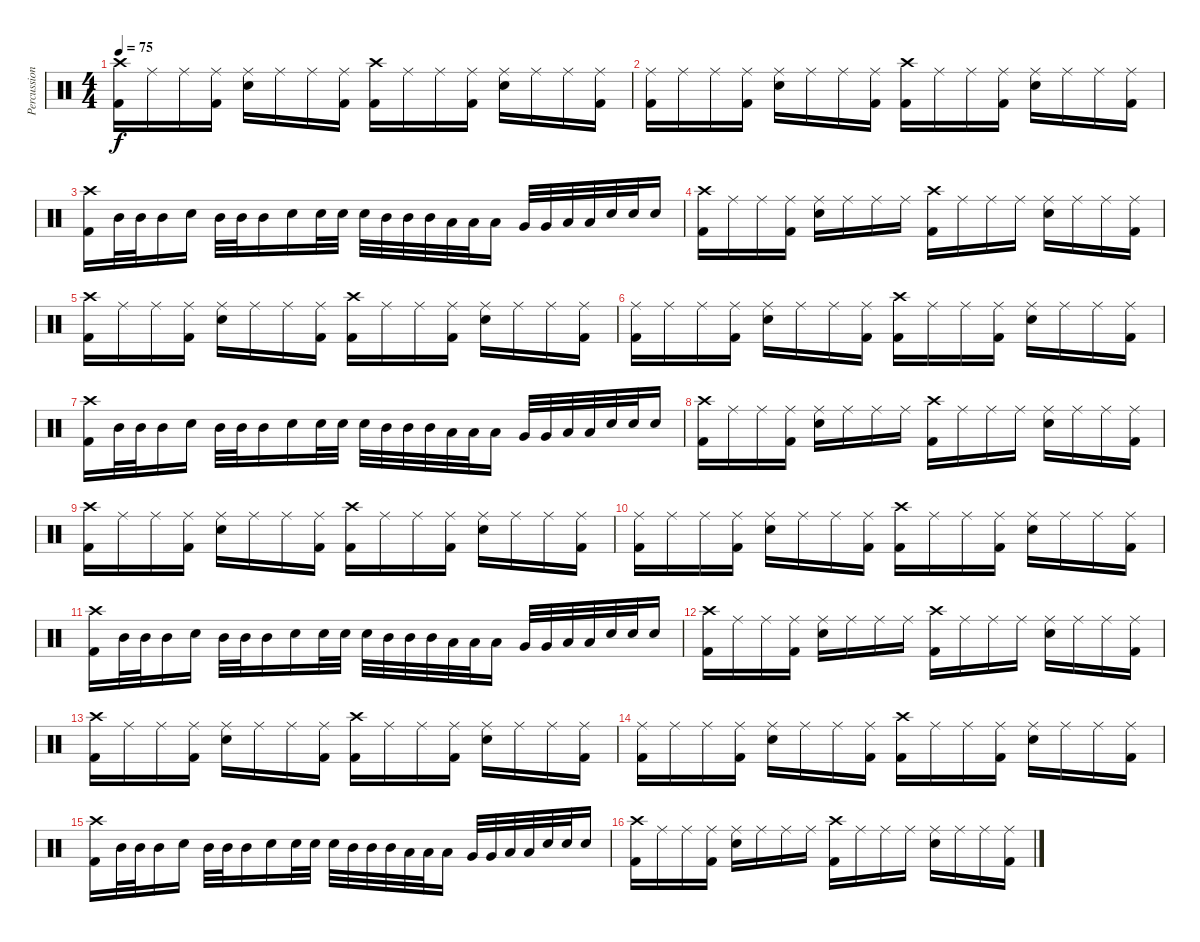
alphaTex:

\track ("Percussions" "Percussion") {instrument percussion}
\staff {score}
\articulation defaults
\ts (4 4)
\tempo 75
\clef neutral
\ks c
("Crash high (hit)" "Kick (hit) 2").16{dy f} "Ride (middle)".16 "Ride (middle)".16 ("Ride (middle)" "Kick (hit) 2").16 ("Ride (middle)" "Electric Snare (hit)").16 "Ride (middle)".16 "Ride (middle)".16 ("Ride (middle)" "Kick (hit) 2").16 ("Crash high (hit)" "Kick (hit) 2").16 "Ride (middle)".16 "Ride (middle)".16 ("Ride (middle)" "Kick (hit) 2").16 ("Ride (middle)" "Electric Snare (hit)").16 "Ride (middle)".16 "Ride (middle)".16 ("Ride (middle)" "Kick (hit) 2").16 |
("Ride (middle)" "Kick (hit) 2").16 "Ride (middle)".16 "Ride (middle)".16 ("Ride (middle)" "Kick (hit) 2").16 ("Ride (middle)" "Electric Snare (hit)").16 "Ride (middle)".16 "Ride (middle)".16 ("Ride (middle)" "Kick (hit) 2").16 ("Crash high (hit)" "Kick (hit) 2").16 "Ride (middle)".16 "Ride (middle)".16 ("Ride (middle)" "Kick (hit) 2").16 ("Ride (middle)" "Electric Snare (hit)").16 "Ride (middle)".16 "Ride (middle)".16 ("Ride (middle)" "Kick (hit) 2").16 |
("Crash high (hit)" "Kick (hit) 2").16 "Mid Tom (hit)".32 "Mid Tom (hit)".32 "Mid Tom (hit)".16 "Electric Snare (hit)".16 "Mid Tom (hit)".32 "Mid Tom (hit)".32 "Mid Tom (hit)".16 "Electric Snare (hit)".16 "Electric Snare (hit)".32 "Electric Snare (hit)".32 "Electric Snare (hit)".32 "Mid Tom (hit)".32 "Mid Tom (hit)".32 "Mid Tom (hit)".32 "Low Tom (hit)".32 "Low Tom (hit)".32 "Low Tom (hit)".16 "Very Low Tom (hit)".32 "Very Low Tom (hit)".32 "Low Floor Tom (hit)".32 "Low Floor Tom (hit)".32 "Electric Snare (hit)".32 "Electric Snare (hit)".32 "Electric Snare (hit)".16 |
("Crash high (hit)" "Kick (hit) 2").16 "Ride (middle)".16 "Ride (middle)".16 ("Ride (middle)" "Kick (hit) 2").16 ("Ride (middle)" "Electric Snare (hit)").16 "Ride (middle)".16 "Ride (middle)".16 "Ride (middle)".16 ("Crash high (hit)" "Kick (hit) 2").16 "Ride (middle)".16 "Ride (middle)".16 "Ride (middle)".16 ("Ride (middle)" "Electric Snare (hit)").16 "Ride (middle)".16 "Ride (middle)".16 ("Ride (middle)" "Kick (hit) 2").16 |
("Crash high (hit)" "Kick (hit) 2").16 "Ride (middle)".16 "Ride (middle)".16 ("Ride (middle)" "Kick (hit) 2").16 ("Ride (middle)" "Electric Snare (hit)").16 "Ride (middle)".16 "Ride (middle)".16 ("Ride (middle)" "Kick (hit) 2").16 ("Crash high (hit)" "Kick (hit) 2").16 "Ride (middle)".16 "Ride (middle)".16 ("Ride (middle)" "Kick (hit) 2").16 ("Ride (middle)" "Electric Snare (hit)").16 "Ride (middle)".16 "Ride (middle)".16 ("Ride (middle)" "Kick (hit) 2").16 |
("Ride (middle)" "Kick (hit) 2").16 "Ride (middle)".16 "Ride (middle)".16 ("Ride (middle)" "Kick (hit) 2").16 ("Ride (middle)" "Electric Snare (hit)").16 "Ride (middle)".16 "Ride (middle)".16 ("Ride (middle)" "Kick (hit) 2").16 ("Crash high (hit)" "Kick (hit) 2").16 "Ride (middle)".16 "Ride (middle)".16 ("Ride (middle)" "Kick (hit) 2").16 ("Ride (middle)" "Electric Snare (hit)").16 "Ride (middle)".16 "Ride (middle)".16 ("Ride (middle)" "Kick (hit) 2").16 |
("Crash high (hit)" "Kick (hit) 2").16 "Mid Tom (hit)".32 "Mid Tom (hit)".32 "Mid Tom (hit)".16 "Electric Snare (hit)".16 "Mid Tom (hit)".32 "Mid Tom (hit)".32 "Mid Tom (hit)".16 "Electric Snare (hit)".16 "Electric Snare (hit)".32 "Electric Snare (hit)".32 "Electric Snare (hit)".32 "Mid Tom (hit)".32 "Mid Tom (hit)".32 "Mid Tom (hit)".32 "Low Tom (hit)".32 "Low Tom (hit)".32 "Low Tom (hit)".16 "Very Low Tom (hit)".32 "Very Low Tom (hit)".32 "Low Floor Tom (hit)".32 "Low Floor Tom (hit)".32 "Electric Snare (hit)".32 "Electric Snare (hit)".32 "Electric Snare (hit)".16 |
("Crash high (hit)" "Kick (hit) 2").16 "Ride (middle)".16 "Ride (middle)".16 ("Ride (middle)" "Kick (hit) 2").16 ("Ride (middle)" "Electric Snare (hit)").16 "Ride (middle)".16 "Ride (middle)".16 "Ride (middle)".16 ("Crash high (hit)" "Kick (hit) 2").16 "Ride (middle)".16 "Ride (middle)".16 "Ride (middle)".16 ("Ride (middle)" "Electric Snare (hit)").16 "Ride (middle)".16 "Ride (middle)".16 ("Ride (middle)" "Kick (hit) 2").16 |
("Crash high (hit)" "Kick (hit) 2").16 "Ride (middle)".16 "Ride (middle)".16 ("Ride (middle)" "Kick (hit) 2").16 ("Ride (middle)" "Electric Snare (hit)").16 "Ride (middle)".16 "Ride (middle)".16 ("Ride (middle)" "Kick (hit) 2").16 ("Crash high (hit)" "Kick (hit) 2").16 "Ride (middle)".16 "Ride (middle)".16 ("Ride (middle)" "Kick (hit) 2").16 ("Ride (middle)" "Electric Snare (hit)").16 "Ride (middle)".16 "Ride (middle)".16 ("Ride (middle)" "Kick (hit) 2").16 |
("Ride (middle)" "Kick (hit) 2").16 "Ride (middle)".16 "Ride (middle)".16 ("Ride (middle)" "Kick (hit) 2").16 ("Ride (middle)" "Electric Snare (hit)").16 "Ride (middle)".16 "Ride (middle)".16 ("Ride (middle)" "Kick (hit) 2").16 ("Crash high (hit)" "Kick (hit) 2").16 "Ride (middle)".16 "Ride (middle)".16 ("Ride (middle)" "Kick (hit) 2").16 ("Ride (middle)" "Electric Snare (hit)").16 "Ride (middle)".16 "Ride (middle)".16 ("Ride (middle)" "Kick (hit) 2").16 |
("Crash high (hit)" "Kick (hit) 2").16 "Mid Tom (hit)".32 "Mid Tom (hit)".32 "Mid Tom (hit)".16 "Electric Snare (hit)".16 "Mid Tom (hit)".32 "Mid Tom (hit)".32 "Mid Tom (hit)".16 "Electric Snare (hit)".16 "Electric Snare (hit)".32 "Electric Snare (hit)".32 "Electric Snare (hit)".32 "Mid Tom (hit)".32 "Mid Tom (hit)".32 "Mid Tom (hit)".32 "Low Tom (hit)".32 "Low Tom (hit)".32 "Low Tom (hit)".16 "Very Low Tom (hit)".32 "Very Low Tom (hit)".32 "Low Floor Tom (hit)".32 "Low Floor Tom (hit)".32 "Electric Snare (hit)".32 "Electric Snare (hit)".32 "Electric Snare (hit)".16 |
("Crash high (hit)" "Kick (hit) 2").16 "Ride (middle)".16 "Ride (middle)".16 ("Ride (middle)" "Kick (hit) 2").16 ("Ride (middle)" "Electric Snare (hit)").16 "Ride (middle)".16 "Ride (middle)".16 "Ride (middle)".16 ("Crash high (hit)" "Kick (hit) 2").16 "Ride (middle)".16 "Ride (middle)".16 "Ride (middle)".16 ("Ride (middle)" "Electric Snare (hit)").16 "Ride (middle)".16 "Ride (middle)".16 ("Ride (middle)" "Kick (hit) 2").16 |
("Crash high (hit)" "Kick (hit) 2").16 "Ride (middle)".16 "Ride (middle)".16 ("Ride (middle)" "Kick (hit) 2").16 ("Ride (middle)" "Electric Snare (hit)").16 "Ride (middle)".16 "Ride (middle)".16 ("Ride (middle)" "Kick (hit) 2").16 ("Crash high (hit)" "Kick (hit) 2").16 "Ride (middle)".16 "Ride (middle)".16 ("Ride (middle)" "Kick (hit) 2").16 ("Ride (middle)" "Electric Snare (hit)").16 "Ride (middle)".16 "Ride (middle)".16 ("Ride (middle)" "Kick (hit) 2").16 |
("Ride (middle)" "Kick (hit) 2").16 "Ride (middle)".16 "Ride (middle)".16 ("Ride (middle)" "Kick (hit) 2").16 ("Ride (middle)" "Electric Snare (hit)").16 "Ride (middle)".16 "Ride (middle)".16 ("Ride (middle)" "Kick (hit) 2").16 ("Crash high (hit)" "Kick (hit) 2").16 "Ride (middle)".16 "Ride (middle)".16 ("Ride (middle)" "Kick (hit) 2").16 ("Ride (middle)" "Electric Snare (hit)").16 "Ride (middle)".16 "Ride (middle)".16 ("Ride (middle)" "Kick (hit) 2").16 |
("Crash high (hit)" "Kick (hit) 2").16 "Mid Tom (hit)".32 "Mid Tom (hit)".32 "Mid Tom (hit)".16 "Electric Snare (hit)".16 "Mid Tom (hit)".32 "Mid Tom (hit)".32 "Mid Tom (hit)".16 "Electric Snare (hit)".16 "Electric Snare (hit)".32 "Electric Snare (hit)".32 "Electric Snare (hit)".32 "Mid Tom (hit)".32 "Mid Tom (hit)".32 "Mid Tom (hit)".32 "Low Tom (hit)".32 "Low Tom (hit)".32 "Low Tom (hit)".16 "Very Low Tom (hit)".32 "Very Low Tom (hit)".32 "Low Floor Tom (hit)".32 "Low Floor Tom (hit)".32 "Electric Snare (hit)".32 "Electric Snare (hit)".32 "Electric Snare (hit)".16 |
("Crash high (hit)" "Kick (hit) 2").16 "Ride (middle)".16 "Ride (middle)".16 ("Ride (middle)" "Kick (hit) 2").16 ("Ride (middle)" "Electric Snare (hit)").16 "Ride (middle)".16 "Ride (middle)".16 "Ride (middle)".16 ("Crash high (hit)" "Kick (hit) 2").16 "Ride (middle)".16 "Ride (middle)".16 "Ride (middle)".16 ("Ride (middle)" "Electric Snare (hit)").16 "Ride (middle)".16 "Ride (middle)".16 ("Ride (middle)" "Kick (hit) 2").16
